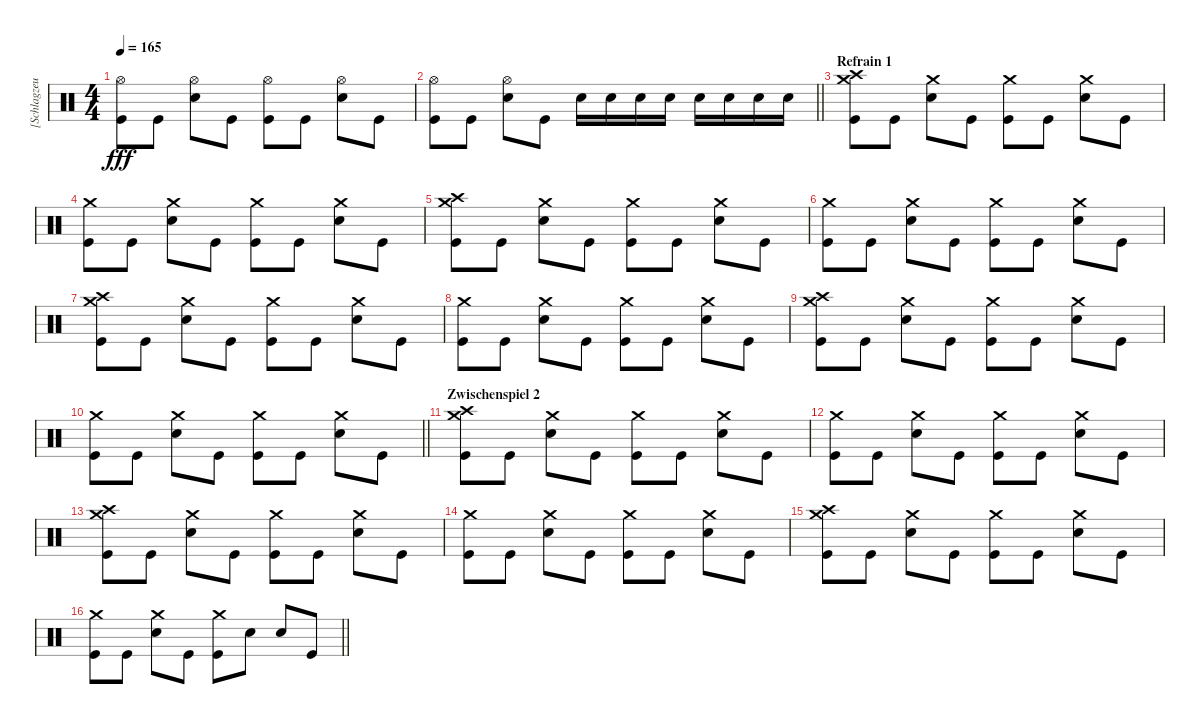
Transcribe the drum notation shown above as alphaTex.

\track ("[Schlagzeug]" "[Schlagzeu") {instrument percussion}
\staff {score}
\articulation defaults
\ts (4 4)
\tempo 165
\clef neutral
\ks c
("Hi-Hat (open)" "Kick (hit)").8{dy fff} "Kick (hit)".8 ("Hi-Hat (open)" "Electric Snare (hit)").8 "Kick (hit)".8 ("Hi-Hat (open)" "Kick (hit)").8 "Kick (hit)".8 ("Hi-Hat (open)" "Electric Snare (hit)").8 "Kick (hit)".8 |
\barLineRight lightlight
("Hi-Hat (open)" "Kick (hit)").8 "Kick (hit)".8 ("Hi-Hat (open)" "Electric Snare (hit)").8 "Kick (hit)".8 "Electric Snare (hit)".16 "Electric Snare (hit)".16 "Electric Snare (hit)".16 "Electric Snare (hit)".16 "Electric Snare (hit)".16 "Electric Snare (hit)".16 "Electric Snare (hit)".16 "Electric Snare (hit)".16 |
\section ("" "Refrain 1")
("Crash high (hit)" "Crash medium (hit)" "Kick (hit)").8 "Kick (hit)".8 ("Crash medium (hit)" "Electric Snare (hit)").8 "Kick (hit)".8 ("Crash medium (hit)" "Kick (hit)").8 "Kick (hit)".8 ("Crash medium (hit)" "Electric Snare (hit)").8 "Kick (hit)".8 |
("Crash medium (hit)" "Kick (hit)").8 "Kick (hit)".8 ("Crash medium (hit)" "Electric Snare (hit)").8 "Kick (hit)".8 ("Crash medium (hit)" "Kick (hit)").8 "Kick (hit)".8 ("Crash medium (hit)" "Electric Snare (hit)").8 "Kick (hit)".8 |
("Crash high (hit)" "Crash medium (hit)" "Kick (hit)").8 "Kick (hit)".8 ("Crash medium (hit)" "Electric Snare (hit)").8 "Kick (hit)".8 ("Crash medium (hit)" "Kick (hit)").8 "Kick (hit)".8 ("Crash medium (hit)" "Electric Snare (hit)").8 "Kick (hit)".8 |
("Crash medium (hit)" "Kick (hit)").8 "Kick (hit)".8 ("Crash medium (hit)" "Electric Snare (hit)").8 "Kick (hit)".8 ("Crash medium (hit)" "Kick (hit)").8 "Kick (hit)".8 ("Crash medium (hit)" "Electric Snare (hit)").8 "Kick (hit)".8 |
("Crash high (hit)" "Crash medium (hit)" "Kick (hit)").8 "Kick (hit)".8 ("Crash medium (hit)" "Electric Snare (hit)").8 "Kick (hit)".8 ("Crash medium (hit)" "Kick (hit)").8 "Kick (hit)".8 ("Crash medium (hit)" "Electric Snare (hit)").8 "Kick (hit)".8 |
("Crash medium (hit)" "Kick (hit)").8 "Kick (hit)".8 ("Crash medium (hit)" "Electric Snare (hit)").8 "Kick (hit)".8 ("Crash medium (hit)" "Kick (hit)").8 "Kick (hit)".8 ("Crash medium (hit)" "Electric Snare (hit)").8 "Kick (hit)".8 |
("Crash high (hit)" "Crash medium (hit)" "Kick (hit)").8 "Kick (hit)".8 ("Crash medium (hit)" "Electric Snare (hit)").8 "Kick (hit)".8 ("Crash medium (hit)" "Kick (hit)").8 "Kick (hit)".8 ("Crash medium (hit)" "Electric Snare (hit)").8 "Kick (hit)".8 |
\barLineRight lightlight
("Crash medium (hit)" "Kick (hit)").8 "Kick (hit)".8 ("Crash medium (hit)" "Electric Snare (hit)").8 "Kick (hit)".8 ("Crash medium (hit)" "Kick (hit)").8 "Kick (hit)".8 ("Crash medium (hit)" "Electric Snare (hit)").8 "Kick (hit)".8 |
\section ("" "Zwischenspiel 2")
("Crash high (hit)" "Crash medium (hit)" "Kick (hit)").8 "Kick (hit)".8 ("Crash medium (hit)" "Electric Snare (hit)").8 "Kick (hit)".8 ("Crash medium (hit)" "Kick (hit)").8 "Kick (hit)".8 ("Crash medium (hit)" "Electric Snare (hit)").8 "Kick (hit)".8 |
("Crash medium (hit)" "Kick (hit)").8 "Kick (hit)".8 ("Crash medium (hit)" "Electric Snare (hit)").8 "Kick (hit)".8 ("Crash medium (hit)" "Kick (hit)").8 "Kick (hit)".8 ("Crash medium (hit)" "Electric Snare (hit)").8 "Kick (hit)".8 |
("Crash high (hit)" "Crash medium (hit)" "Kick (hit)").8 "Kick (hit)".8 ("Crash medium (hit)" "Electric Snare (hit)").8 "Kick (hit)".8 ("Crash medium (hit)" "Kick (hit)").8 "Kick (hit)".8 ("Crash medium (hit)" "Electric Snare (hit)").8 "Kick (hit)".8 |
("Crash medium (hit)" "Kick (hit)").8 "Kick (hit)".8 ("Crash medium (hit)" "Electric Snare (hit)").8 "Kick (hit)".8 ("Crash medium (hit)" "Kick (hit)").8 "Kick (hit)".8 ("Crash medium (hit)" "Electric Snare (hit)").8 "Kick (hit)".8 |
("Crash medium (hit)" "Crash high (hit)" "Kick (hit)").8 "Kick (hit)".8 ("Crash medium (hit)" "Electric Snare (hit)").8 "Kick (hit)".8 ("Crash medium (hit)" "Kick (hit)").8 "Kick (hit)".8 ("Crash medium (hit)" "Electric Snare (hit)").8 "Kick (hit)".8 |
\barLineRight lightlight
("Crash medium (hit)" "Kick (hit)").8 "Kick (hit)".8 ("Crash medium (hit)" "Electric Snare (hit)").8 "Kick (hit)".8 ("Crash medium (hit)" "Kick (hit)").8 "Electric Snare (hit)".8 "Electric Snare (hit)".8 "Kick (hit)".8
